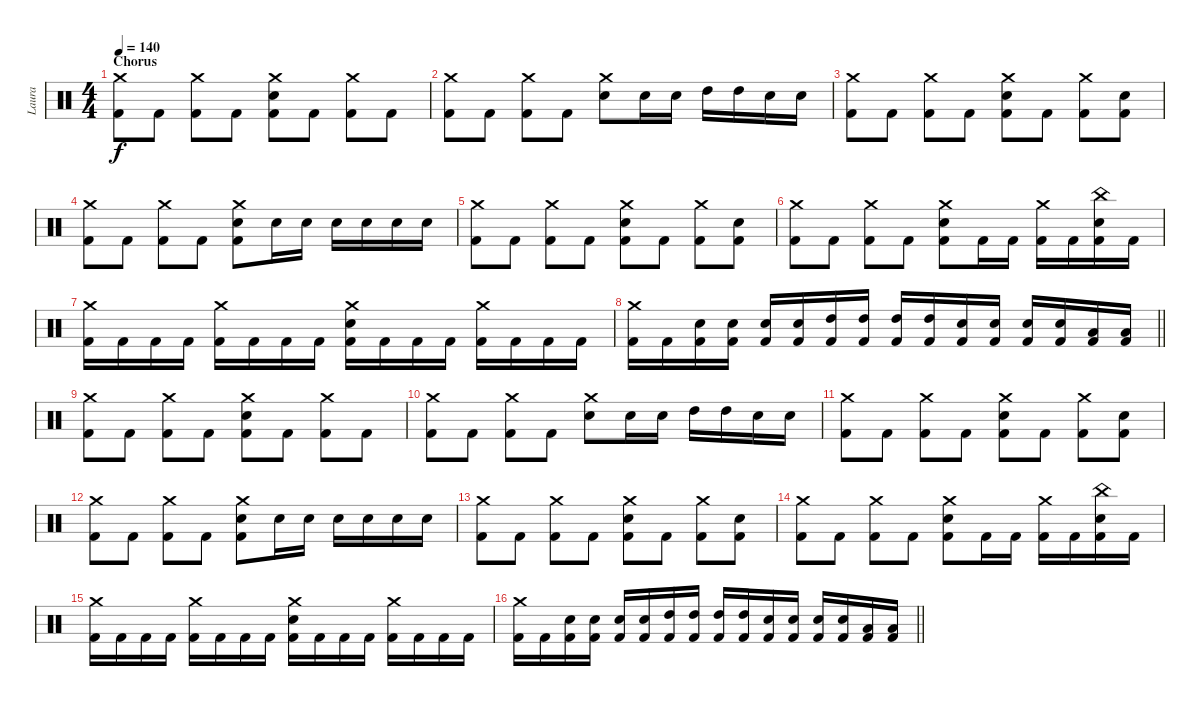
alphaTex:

\track ("Laura" "Laura") {instrument percussion}
\staff {score}
\articulation defaults
\ts (4 4)
\section ("" "Chorus")
\tempo 140
\clef neutral
\ks c
("Crash medium (hit)" "Kick (hit) 2").8{dy f} "Kick (hit) 2".8 ("Crash medium (hit)" "Kick (hit) 2").8 "Kick (hit) 2".8 ("Crash medium (hit)" "Electric Snare (hit)" "Kick (hit) 2").8 "Kick (hit) 2".8 ("Crash medium (hit)" "Kick (hit) 2").8 "Kick (hit) 2".8 |
("Crash medium (hit)" "Kick (hit) 2").8 "Kick (hit) 2".8 ("Crash medium (hit)" "Kick (hit) 2").8 "Kick (hit) 2".8 ("Crash medium (hit)" "Electric Snare (hit)").8 "Electric Snare (hit)".16 "Electric Snare (hit)".16 "High Tom (hit)".16 "High Tom (hit)".16 "Electric Snare (hit)".16 "Electric Snare (hit)".16 |
("Crash medium (hit)" "Kick (hit) 2").8 "Kick (hit) 2".8 ("Crash medium (hit)" "Kick (hit) 2").8 "Kick (hit) 2".8 ("Crash medium (hit)" "Electric Snare (hit)" "Kick (hit) 2").8 "Kick (hit) 2".8 ("Crash medium (hit)" "Kick (hit) 2").8 ("Electric Snare (hit)" "Kick (hit) 2").8 |
("Crash medium (hit)" "Kick (hit) 2").8 "Kick (hit) 2".8 ("Crash medium (hit)" "Kick (hit) 2").8 "Kick (hit) 2".8 ("Crash medium (hit)" "Electric Snare (hit)" "Kick (hit) 2").8 "Electric Snare (hit)".16 "Electric Snare (hit)".16 "Electric Snare (hit)".16 "Electric Snare (hit)".16 "Electric Snare (hit)".16 "Electric Snare (hit)".16 |
("Crash medium (hit)" "Kick (hit) 2").8 "Kick (hit) 2".8 ("Crash medium (hit)" "Kick (hit) 2").8 "Kick (hit) 2".8 ("Crash medium (hit)" "Electric Snare (hit)" "Kick (hit) 2").8 "Kick (hit) 2".8 ("Crash medium (hit)" "Kick (hit) 2").8 ("Electric Snare (hit)" "Kick (hit) 2").8 |
("Crash medium (hit)" "Kick (hit) 2").8 "Kick (hit) 2".8 ("Crash medium (hit)" "Kick (hit) 2").8 "Kick (hit) 2".8 ("Crash medium (hit)" "Electric Snare (hit)" "Kick (hit) 2").8 "Kick (hit) 2".16 "Kick (hit) 2".16 ("Crash medium (hit)" "Kick (hit) 2").16 "Kick (hit) 2".16 ("China (hit)" "Electric Snare (hit)" "Kick (hit) 2").16 "Kick (hit) 2".16 |
("Crash medium (hit)" "Kick (hit) 2").16 "Kick (hit) 2".16 "Kick (hit) 2".16 "Kick (hit) 2".16 ("Crash medium (hit)" "Kick (hit) 2").16 "Kick (hit) 2".16 "Kick (hit) 2".16 "Kick (hit) 2".16 ("Crash medium (hit)" "Electric Snare (hit)" "Kick (hit) 2").16 "Kick (hit) 2".16 "Kick (hit) 2".16 "Kick (hit) 2".16 ("Crash medium (hit)" "Kick (hit) 2").16 "Kick (hit) 2".16 "Kick (hit) 2".16 "Kick (hit) 2".16 |
\barLineRight lightlight
("Crash medium (hit)" "Kick (hit) 2").16 "Kick (hit) 2".16 ("Electric Snare (hit)" "Kick (hit) 2").16 ("Electric Snare (hit)" "Kick (hit) 2").16 ("Electric Snare (hit)" "Kick (hit) 2").16 ("Electric Snare (hit)" "Kick (hit) 2").16 ("High Tom (hit)" "Kick (hit) 2").16 ("High Tom (hit)" "Kick (hit) 2").16 ("High Tom (hit)" "Kick (hit) 2").16 ("High Tom (hit)" "Kick (hit) 2").16 ("Electric Snare (hit)" "Kick (hit) 2").16 ("Electric Snare (hit)" "Kick (hit) 2").16 ("Electric Snare (hit)" "Kick (hit) 2").16 ("Electric Snare (hit)" "Kick (hit) 2").16 ("Low Floor Tom (hit)" "Kick (hit) 2").16 ("Low Floor Tom (hit)" "Kick (hit) 2").16 |
("Crash medium (hit)" "Kick (hit) 2").8 "Kick (hit) 2".8 ("Crash medium (hit)" "Kick (hit) 2").8 "Kick (hit) 2".8 ("Crash medium (hit)" "Electric Snare (hit)" "Kick (hit) 2").8 "Kick (hit) 2".8 ("Crash medium (hit)" "Kick (hit) 2").8 "Kick (hit) 2".8 |
("Crash medium (hit)" "Kick (hit) 2").8 "Kick (hit) 2".8 ("Crash medium (hit)" "Kick (hit) 2").8 "Kick (hit) 2".8 ("Crash medium (hit)" "Electric Snare (hit)").8 "Electric Snare (hit)".16 "Electric Snare (hit)".16 "High Tom (hit)".16 "High Tom (hit)".16 "Electric Snare (hit)".16 "Electric Snare (hit)".16 |
("Crash medium (hit)" "Kick (hit) 2").8 "Kick (hit) 2".8 ("Crash medium (hit)" "Kick (hit) 2").8 "Kick (hit) 2".8 ("Crash medium (hit)" "Electric Snare (hit)" "Kick (hit) 2").8 "Kick (hit) 2".8 ("Crash medium (hit)" "Kick (hit) 2").8 ("Electric Snare (hit)" "Kick (hit) 2").8 |
("Crash medium (hit)" "Kick (hit) 2").8 "Kick (hit) 2".8 ("Crash medium (hit)" "Kick (hit) 2").8 "Kick (hit) 2".8 ("Crash medium (hit)" "Electric Snare (hit)" "Kick (hit) 2").8 "Electric Snare (hit)".16 "Electric Snare (hit)".16 "Electric Snare (hit)".16 "Electric Snare (hit)".16 "Electric Snare (hit)".16 "Electric Snare (hit)".16 |
("Crash medium (hit)" "Kick (hit) 2").8 "Kick (hit) 2".8 ("Crash medium (hit)" "Kick (hit) 2").8 "Kick (hit) 2".8 ("Crash medium (hit)" "Electric Snare (hit)" "Kick (hit) 2").8 "Kick (hit) 2".8 ("Crash medium (hit)" "Kick (hit) 2").8 ("Electric Snare (hit)" "Kick (hit) 2").8 |
("Crash medium (hit)" "Kick (hit) 2").8 "Kick (hit) 2".8 ("Crash medium (hit)" "Kick (hit) 2").8 "Kick (hit) 2".8 ("Crash medium (hit)" "Electric Snare (hit)" "Kick (hit) 2").8 "Kick (hit) 2".16 "Kick (hit) 2".16 ("Crash medium (hit)" "Kick (hit) 2").16 "Kick (hit) 2".16 ("China (hit)" "Electric Snare (hit)" "Kick (hit) 2").16 "Kick (hit) 2".16 |
("Crash medium (hit)" "Kick (hit) 2").16 "Kick (hit) 2".16 "Kick (hit) 2".16 "Kick (hit) 2".16 ("Crash medium (hit)" "Kick (hit) 2").16 "Kick (hit) 2".16 "Kick (hit) 2".16 "Kick (hit) 2".16 ("Crash medium (hit)" "Electric Snare (hit)" "Kick (hit) 2").16 "Kick (hit) 2".16 "Kick (hit) 2".16 "Kick (hit) 2".16 ("Crash medium (hit)" "Kick (hit) 2").16 "Kick (hit) 2".16 "Kick (hit) 2".16 "Kick (hit) 2".16 |
\barLineRight lightlight
("Crash medium (hit)" "Kick (hit) 2").16 "Kick (hit) 2".16 ("Electric Snare (hit)" "Kick (hit) 2").16 ("Electric Snare (hit)" "Kick (hit) 2").16 ("Electric Snare (hit)" "Kick (hit) 2").16 ("Electric Snare (hit)" "Kick (hit) 2").16 ("High Tom (hit)" "Kick (hit) 2").16 ("High Tom (hit)" "Kick (hit) 2").16 ("High Tom (hit)" "Kick (hit) 2").16 ("High Tom (hit)" "Kick (hit) 2").16 ("Electric Snare (hit)" "Kick (hit) 2").16 ("Electric Snare (hit)" "Kick (hit) 2").16 ("Electric Snare (hit)" "Kick (hit) 2").16 ("Electric Snare (hit)" "Kick (hit) 2").16 ("Low Floor Tom (hit)" "Kick (hit) 2").16 ("Low Floor Tom (hit)" "Kick (hit) 2").16
